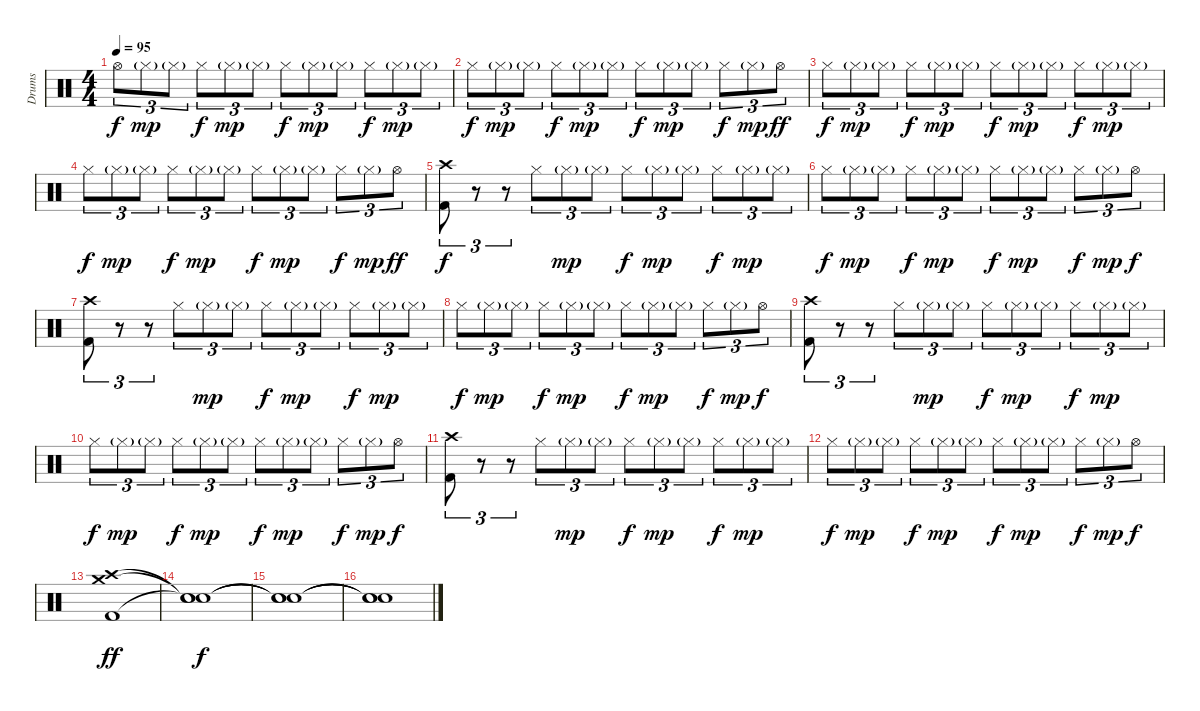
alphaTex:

\track ("Drums" "Drums") {instrument percussion}
\staff {score}
\articulation defaults
\ts (4 4)
\tempo 95
\clef neutral
\ks c "Hi-Hat (open)".8{tu (3 2) dy f} "Hi-Hat (closed)"{g}.8{tu (3 2) dy mp} "Hi-Hat (closed)"{g}.8{tu (3 2)} "Hi-Hat (closed)".8{tu (3 2) dy f} "Hi-Hat (closed)"{g}.8{tu (3 2) dy mp} "Hi-Hat (closed)"{g}.8{tu (3 2)} "Hi-Hat (closed)".8{tu (3 2) dy f} "Hi-Hat (closed)"{g}.8{tu (3 2) dy mp} "Hi-Hat (closed)"{g}.8{tu (3 2)} "Hi-Hat (closed)".8{tu (3 2) dy f} "Hi-Hat (closed)"{g}.8{tu (3 2) dy mp} "Hi-Hat (closed)"{g}.8{tu (3 2)}
|
"Hi-Hat (closed)".8{tu (3 2) dy f} "Hi-Hat (closed)"{g}.8{tu (3 2) dy mp} "Hi-Hat (closed)"{g}.8{tu (3 2)} "Hi-Hat (closed)".8{tu (3 2) dy f} "Hi-Hat (closed)"{g}.8{tu (3 2) dy mp} "Hi-Hat (closed)"{g}.8{tu (3 2)} "Hi-Hat (closed)".8{tu (3 2) dy f} "Hi-Hat (closed)"{g}.8{tu (3 2) dy mp} "Hi-Hat (closed)"{g}.8{tu (3 2)} "Hi-Hat (closed)".8{tu (3 2) dy f} "Hi-Hat (closed)"{g}.8{tu (3 2) dy mp} "Hi-Hat (open)".8{tu (3 2) dy ff} |
"Hi-Hat (closed)".8{tu (3 2) dy f} "Hi-Hat (closed)"{g}.8{tu (3 2) dy mp} "Hi-Hat (closed)"{g}.8{tu (3 2)} "Hi-Hat (closed)".8{tu (3 2) dy f} "Hi-Hat (closed)"{g}.8{tu (3 2) dy mp} "Hi-Hat (closed)"{g}.8{tu (3 2)} "Hi-Hat (closed)".8{tu (3 2) dy f} "Hi-Hat (closed)"{g}.8{tu (3 2) dy mp} "Hi-Hat (closed)"{g}.8{tu (3 2)} "Hi-Hat (closed)".8{tu (3 2) dy f} "Hi-Hat (closed)"{g}.8{tu (3 2) dy mp} "Hi-Hat (closed)"{g}.8{tu (3 2)} |
"Hi-Hat (closed)".8{tu (3 2) dy f} "Hi-Hat (closed)"{g}.8{tu (3 2) dy mp} "Hi-Hat (closed)"{g}.8{tu (3 2)} "Hi-Hat (closed)".8{tu (3 2) dy f} "Hi-Hat (closed)"{g}.8{tu (3 2) dy mp} "Hi-Hat (closed)"{g}.8{tu (3 2)} "Hi-Hat (closed)".8{tu (3 2) dy f} "Hi-Hat (closed)"{g}.8{tu (3 2) dy mp} "Hi-Hat (closed)"{g}.8{tu (3 2)} "Hi-Hat (closed)".8{tu (3 2) dy f} "Hi-Hat (closed)"{g}.8{tu (3 2) dy mp} "Hi-Hat (open)".8{tu (3 2) dy ff} |
("Crash high (hit)" "Kick (hit) 2").8{tu (3 2) dy f} r.8{tu (3 2)} r.8{tu (3 2)} "Hi-Hat (closed)".8{tu (3 2)} "Hi-Hat (closed)"{g}.8{tu (3 2) dy mp} "Hi-Hat (closed)"{g}.8{tu (3 2)} "Hi-Hat (closed)".8{tu (3 2) dy f} "Hi-Hat (closed)"{g}.8{tu (3 2) dy mp} "Hi-Hat (closed)"{g}.8{tu (3 2)} "Hi-Hat (closed)".8{tu (3 2) dy f} "Hi-Hat (closed)"{g}.8{tu (3 2) dy mp} "Hi-Hat (closed)"{g}.8{tu (3 2)} |
"Hi-Hat (closed)".8{tu (3 2) dy f} "Hi-Hat (closed)"{g}.8{tu (3 2) dy mp} "Hi-Hat (closed)"{g}.8{tu (3 2)} "Hi-Hat (closed)".8{tu (3 2) dy f} "Hi-Hat (closed)"{g}.8{tu (3 2) dy mp} "Hi-Hat (closed)"{g}.8{tu (3 2)} "Hi-Hat (closed)".8{tu (3 2) dy f} "Hi-Hat (closed)"{g}.8{tu (3 2) dy mp} "Hi-Hat (closed)"{g}.8{tu (3 2)} "Hi-Hat (closed)".8{tu (3 2) dy f} "Hi-Hat (closed)"{g}.8{tu (3 2) dy mp} "Hi-Hat (open)".8{tu (3 2) dy f} |
("Crash high (hit)" "Kick (hit) 2").8{tu (3 2)} r.8{tu (3 2)} r.8{tu (3 2)} "Hi-Hat (closed)".8{tu (3 2)} "Hi-Hat (closed)"{g}.8{tu (3 2) dy mp} "Hi-Hat (closed)"{g}.8{tu (3 2)} "Hi-Hat (closed)".8{tu (3 2) dy f} "Hi-Hat (closed)"{g}.8{tu (3 2) dy mp} "Hi-Hat (closed)"{g}.8{tu (3 2)} "Hi-Hat (closed)".8{tu (3 2) dy f} "Hi-Hat (closed)"{g}.8{tu (3 2) dy mp} "Hi-Hat (closed)"{g}.8{tu (3 2)} |
"Hi-Hat (closed)".8{tu (3 2) dy f} "Hi-Hat (closed)"{g}.8{tu (3 2) dy mp} "Hi-Hat (closed)"{g}.8{tu (3 2)} "Hi-Hat (closed)".8{tu (3 2) dy f} "Hi-Hat (closed)"{g}.8{tu (3 2) dy mp} "Hi-Hat (closed)"{g}.8{tu (3 2)} "Hi-Hat (closed)".8{tu (3 2) dy f} "Hi-Hat (closed)"{g}.8{tu (3 2) dy mp} "Hi-Hat (closed)"{g}.8{tu (3 2)} "Hi-Hat (closed)".8{tu (3 2) dy f} "Hi-Hat (closed)"{g}.8{tu (3 2) dy mp} "Hi-Hat (open)".8{tu (3 2) dy f} |
("Crash high (hit)" "Kick (hit) 2").8{tu (3 2)} r.8{tu (3 2)} r.8{tu (3 2)} "Hi-Hat (closed)".8{tu (3 2)} "Hi-Hat (closed)"{g}.8{tu (3 2) dy mp} "Hi-Hat (closed)"{g}.8{tu (3 2)} "Hi-Hat (closed)".8{tu (3 2) dy f} "Hi-Hat (closed)"{g}.8{tu (3 2) dy mp} "Hi-Hat (closed)"{g}.8{tu (3 2)} "Hi-Hat (closed)".8{tu (3 2) dy f} "Hi-Hat (closed)"{g}.8{tu (3 2) dy mp} "Hi-Hat (closed)"{g}.8{tu (3 2)} |
"Hi-Hat (closed)".8{tu (3 2) dy f} "Hi-Hat (closed)"{g}.8{tu (3 2) dy mp} "Hi-Hat (closed)"{g}.8{tu (3 2)} "Hi-Hat (closed)".8{tu (3 2) dy f} "Hi-Hat (closed)"{g}.8{tu (3 2) dy mp} "Hi-Hat (closed)"{g}.8{tu (3 2)} "Hi-Hat (closed)".8{tu (3 2) dy f} "Hi-Hat (closed)"{g}.8{tu (3 2) dy mp} "Hi-Hat (closed)"{g}.8{tu (3 2)} "Hi-Hat (closed)".8{tu (3 2) dy f} "Hi-Hat (closed)"{g}.8{tu (3 2) dy mp} "Hi-Hat (open)".8{tu (3 2) dy f} |
("Crash high (hit)" "Kick (hit) 2").8{tu (3 2)} r.8{tu (3 2)} r.8{tu (3 2)} "Hi-Hat (closed)".8{tu (3 2)} "Hi-Hat (closed)"{g}.8{tu (3 2) dy mp} "Hi-Hat (closed)"{g}.8{tu (3 2)} "Hi-Hat (closed)".8{tu (3 2) dy f} "Hi-Hat (closed)"{g}.8{tu (3 2) dy mp} "Hi-Hat (closed)"{g}.8{tu (3 2)} "Hi-Hat (closed)".8{tu (3 2) dy f} "Hi-Hat (closed)"{g}.8{tu (3 2) dy mp} "Hi-Hat (closed)"{g}.8{tu (3 2)} |
"Hi-Hat (closed)".8{tu (3 2) dy f} "Hi-Hat (closed)"{g}.8{tu (3 2) dy mp} "Hi-Hat (closed)"{g}.8{tu (3 2)} "Hi-Hat (closed)".8{tu (3 2) dy f} "Hi-Hat (closed)"{g}.8{tu (3 2) dy mp} "Hi-Hat (closed)"{g}.8{tu (3 2)} "Hi-Hat (closed)".8{tu (3 2) dy f} "Hi-Hat (closed)"{g}.8{tu (3 2) dy mp} "Hi-Hat (closed)"{g}.8{tu (3 2)} "Hi-Hat (closed)".8{tu (3 2) dy f} "Hi-Hat (closed)"{g}.8{tu (3 2) dy mp} "Hi-Hat (open)".8{tu (3 2) dy f} |
("Crash high (hit)" "Crash medium (hit)" "Kick (hit) 2").1{dy ff} |
("Snare (hit)"{t} "Snare (hit)"{t} "Snare (hit)"{t}).1{dy f} |
("Snare (hit)"{t} "Snare (hit)"{t} "Snare (hit)"{t}).1 |
("Snare (hit)"{t} "Snare (hit)"{t} "Snare (hit)"{t}).1
